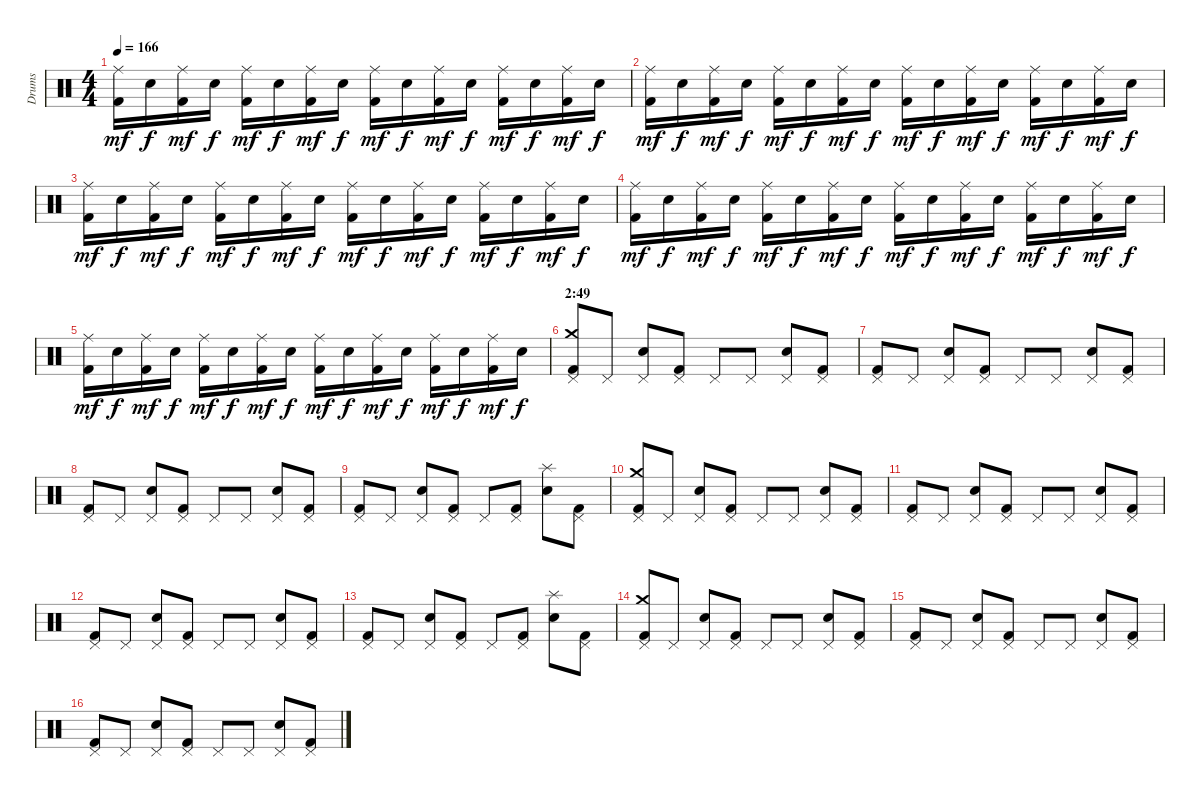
\track ("Drums" "Drums") {instrument percussion}
\staff {score}
\articulation defaults
\ts (4 4)
\tempo 166
\clef neutral
\ks c
("Ride (middle)" "Kick (hit) 2").16{dy mf} "Snare (hit) 2".16{dy f} ("Ride (middle)" "Kick (hit) 2").16{dy mf} "Snare (hit) 2".16{dy f} ("Ride (middle)" "Kick (hit) 2").16{dy mf} "Snare (hit) 2".16{dy f} ("Ride (middle)" "Kick (hit) 2").16{dy mf} "Snare (hit) 2".16{dy f} ("Ride (middle)" "Kick (hit) 2").16{dy mf} "Snare (hit) 2".16{dy f} ("Ride (middle)" "Kick (hit) 2").16{dy mf} "Snare (hit) 2".16{dy f} ("Ride (middle)" "Kick (hit) 2").16{dy mf} "Snare (hit) 2".16{dy f} ("Ride (middle)" "Kick (hit) 2").16{dy mf} "Snare (hit) 2".16{dy f} |
("Ride (middle)" "Kick (hit) 2").16{dy mf} "Snare (hit) 2".16{dy f} ("Ride (middle)" "Kick (hit) 2").16{dy mf} "Snare (hit) 2".16{dy f} ("Ride (middle)" "Kick (hit) 2").16{dy mf} "Snare (hit) 2".16{dy f} ("Ride (middle)" "Kick (hit) 2").16{dy mf} "Snare (hit) 2".16{dy f} ("Ride (middle)" "Kick (hit) 2").16{dy mf} "Snare (hit) 2".16{dy f} ("Ride (middle)" "Kick (hit) 2").16{dy mf} "Snare (hit) 2".16{dy f} ("Ride (middle)" "Kick (hit) 2").16{dy mf} "Snare (hit) 2".16{dy f} ("Ride (middle)" "Kick (hit) 2").16{dy mf} "Snare (hit) 2".16{dy f} |
("Ride (middle)" "Kick (hit) 2").16{dy mf} "Snare (hit) 2".16{dy f} ("Ride (middle)" "Kick (hit) 2").16{dy mf} "Snare (hit) 2".16{dy f} ("Ride (middle)" "Kick (hit) 2").16{dy mf} "Snare (hit) 2".16{dy f} ("Ride (middle)" "Kick (hit) 2").16{dy mf} "Snare (hit) 2".16{dy f} ("Ride (middle)" "Kick (hit) 2").16{dy mf} "Snare (hit) 2".16{dy f} ("Ride (middle)" "Kick (hit) 2").16{dy mf} "Snare (hit) 2".16{dy f} ("Ride (middle)" "Kick (hit) 2").16{dy mf} "Snare (hit) 2".16{dy f} ("Ride (middle)" "Kick (hit) 2").16{dy mf} "Snare (hit) 2".16{dy f} |
("Ride (middle)" "Kick (hit) 2").16{dy mf} "Snare (hit) 2".16{dy f} ("Ride (middle)" "Kick (hit) 2").16{dy mf} "Snare (hit) 2".16{dy f} ("Ride (middle)" "Kick (hit) 2").16{dy mf} "Snare (hit) 2".16{dy f} ("Ride (middle)" "Kick (hit) 2").16{dy mf} "Snare (hit) 2".16{dy f} ("Ride (middle)" "Kick (hit) 2").16{dy mf} "Snare (hit) 2".16{dy f} ("Ride (middle)" "Kick (hit) 2").16{dy mf} "Snare (hit) 2".16{dy f} ("Ride (middle)" "Kick (hit) 2").16{dy mf} "Snare (hit) 2".16{dy f} ("Ride (middle)" "Kick (hit) 2").16{dy mf} "Snare (hit) 2".16{dy f} |
("Ride (middle)" "Kick (hit) 2").16{dy mf} "Snare (hit) 2".16{dy f} ("Ride (middle)" "Kick (hit) 2").16{dy mf} "Snare (hit) 2".16{dy f} ("Ride (middle)" "Kick (hit) 2").16{dy mf} "Snare (hit) 2".16{dy f} ("Ride (middle)" "Kick (hit) 2").16{dy mf} "Snare (hit) 2".16{dy f} ("Ride (middle)" "Kick (hit) 2").16{dy mf} "Snare (hit) 2".16{dy f} ("Ride (middle)" "Kick (hit) 2").16{dy mf} "Snare (hit) 2".16{dy f} ("Ride (middle)" "Kick (hit) 2").16{dy mf} "Snare (hit) 2".16{dy f} ("Ride (middle)" "Kick (hit) 2").16{dy mf} "Snare (hit) 2".16{dy f} |
\section ("" "2:49")
("Crash medium (hit)" "Pedal Hi-Hat (hit)" "Kick (hit) 2").8 "Pedal Hi-Hat (hit)".8 ("Pedal Hi-Hat (hit)" "Electric Snare (hit)").8 ("Pedal Hi-Hat (hit)" "Kick (hit) 2").8 "Pedal Hi-Hat (hit)".8 "Pedal Hi-Hat (hit)".8 ("Pedal Hi-Hat (hit)" "Electric Snare (hit)").8 ("Pedal Hi-Hat (hit)" "Kick (hit) 2").8 |
("Pedal Hi-Hat (hit)" "Kick (hit) 2").8 "Pedal Hi-Hat (hit)".8 ("Pedal Hi-Hat (hit)" "Electric Snare (hit)").8 ("Pedal Hi-Hat (hit)" "Kick (hit) 2").8 "Pedal Hi-Hat (hit)".8 "Pedal Hi-Hat (hit)".8 ("Pedal Hi-Hat (hit)" "Electric Snare (hit)").8 ("Pedal Hi-Hat (hit)" "Kick (hit) 2").8 |
("Pedal Hi-Hat (hit)" "Kick (hit) 2").8 "Pedal Hi-Hat (hit)".8 ("Pedal Hi-Hat (hit)" "Electric Snare (hit)").8 ("Pedal Hi-Hat (hit)" "Kick (hit) 2").8 "Pedal Hi-Hat (hit)".8 "Pedal Hi-Hat (hit)".8 ("Pedal Hi-Hat (hit)" "Electric Snare (hit)").8 ("Pedal Hi-Hat (hit)" "Kick (hit) 2").8 |
("Pedal Hi-Hat (hit)" "Kick (hit) 2").8 "Pedal Hi-Hat (hit)".8 ("Pedal Hi-Hat (hit)" "Electric Snare (hit)").8 ("Pedal Hi-Hat (hit)" "Kick (hit) 2").8 "Pedal Hi-Hat (hit)".8 ("Pedal Hi-Hat (hit)" "Kick (hit) 2").8 ("Splash (hit)" "Electric Snare (hit)").8 ("Pedal Hi-Hat (hit)" "Kick (hit) 2").8 |
("Crash medium (hit)" "Pedal Hi-Hat (hit)" "Kick (hit) 2").8 "Pedal Hi-Hat (hit)".8 ("Pedal Hi-Hat (hit)" "Electric Snare (hit)").8 ("Pedal Hi-Hat (hit)" "Kick (hit) 2").8 "Pedal Hi-Hat (hit)".8 "Pedal Hi-Hat (hit)".8 ("Pedal Hi-Hat (hit)" "Electric Snare (hit)").8 ("Pedal Hi-Hat (hit)" "Kick (hit) 2").8 |
("Pedal Hi-Hat (hit)" "Kick (hit) 2").8 "Pedal Hi-Hat (hit)".8 ("Pedal Hi-Hat (hit)" "Electric Snare (hit)").8 ("Pedal Hi-Hat (hit)" "Kick (hit) 2").8 "Pedal Hi-Hat (hit)".8 "Pedal Hi-Hat (hit)".8 ("Pedal Hi-Hat (hit)" "Electric Snare (hit)").8 ("Pedal Hi-Hat (hit)" "Kick (hit) 2").8 |
("Pedal Hi-Hat (hit)" "Kick (hit) 2").8 "Pedal Hi-Hat (hit)".8 ("Pedal Hi-Hat (hit)" "Electric Snare (hit)").8 ("Pedal Hi-Hat (hit)" "Kick (hit) 2").8 "Pedal Hi-Hat (hit)".8 "Pedal Hi-Hat (hit)".8 ("Pedal Hi-Hat (hit)" "Electric Snare (hit)").8 ("Pedal Hi-Hat (hit)" "Kick (hit) 2").8 |
("Pedal Hi-Hat (hit)" "Kick (hit) 2").8 "Pedal Hi-Hat (hit)".8 ("Pedal Hi-Hat (hit)" "Electric Snare (hit)").8 ("Pedal Hi-Hat (hit)" "Kick (hit) 2").8 "Pedal Hi-Hat (hit)".8 ("Pedal Hi-Hat (hit)" "Kick (hit) 2").8 ("Splash (hit)" "Electric Snare (hit)").8 ("Pedal Hi-Hat (hit)" "Kick (hit) 2").8 |
("Crash medium (hit)" "Pedal Hi-Hat (hit)" "Kick (hit) 2").8 "Pedal Hi-Hat (hit)".8 ("Pedal Hi-Hat (hit)" "Electric Snare (hit)").8 ("Pedal Hi-Hat (hit)" "Kick (hit) 2").8 "Pedal Hi-Hat (hit)".8 "Pedal Hi-Hat (hit)".8 ("Pedal Hi-Hat (hit)" "Electric Snare (hit)").8 ("Pedal Hi-Hat (hit)" "Kick (hit) 2").8 |
("Pedal Hi-Hat (hit)" "Kick (hit) 2").8 "Pedal Hi-Hat (hit)".8 ("Pedal Hi-Hat (hit)" "Electric Snare (hit)").8 ("Pedal Hi-Hat (hit)" "Kick (hit) 2").8 "Pedal Hi-Hat (hit)".8 "Pedal Hi-Hat (hit)".8 ("Pedal Hi-Hat (hit)" "Electric Snare (hit)").8 ("Pedal Hi-Hat (hit)" "Kick (hit) 2").8 |
("Pedal Hi-Hat (hit)" "Kick (hit) 2").8 "Pedal Hi-Hat (hit)".8 ("Pedal Hi-Hat (hit)" "Electric Snare (hit)").8 ("Pedal Hi-Hat (hit)" "Kick (hit) 2").8 "Pedal Hi-Hat (hit)".8 "Pedal Hi-Hat (hit)".8 ("Pedal Hi-Hat (hit)" "Electric Snare (hit)").8 ("Pedal Hi-Hat (hit)" "Kick (hit) 2").8
